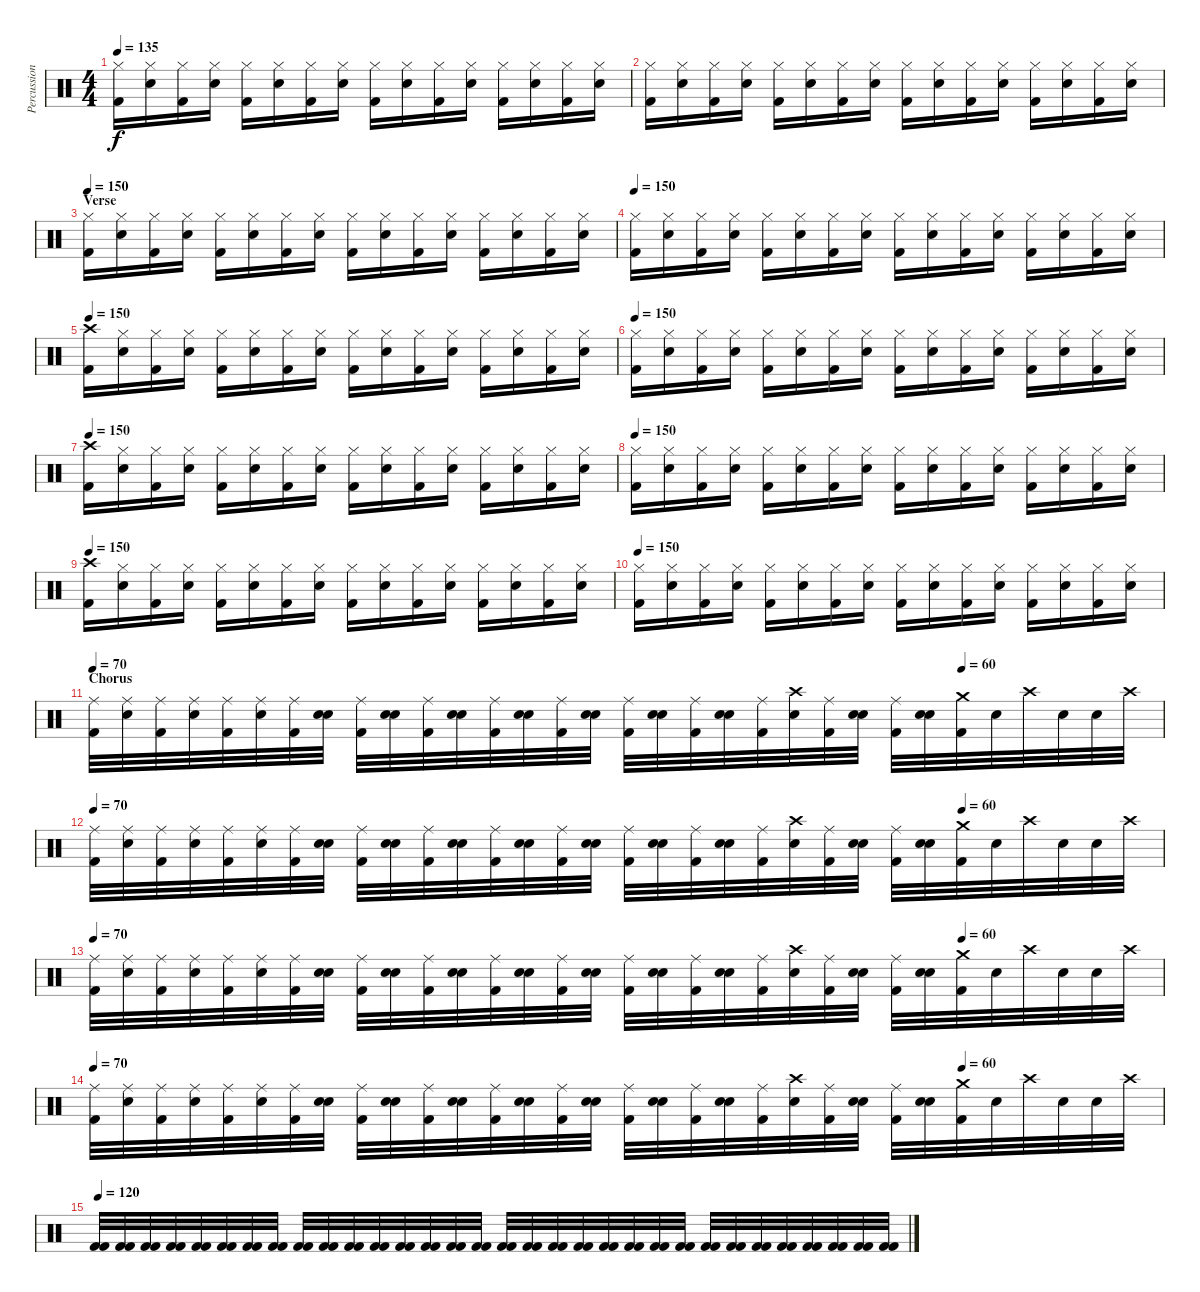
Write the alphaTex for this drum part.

\track ("Percussion" "Percussion") {instrument percussion}
\staff {score}
\articulation defaults
\ts (4 4)
\tempo 135
\clef neutral
\ks c
("Hi-Hat (closed)" "Kick (hit) 2").16{dy f} ("Hi-Hat (closed)" "Electric Snare (hit)").16 ("Hi-Hat (closed)" "Kick (hit) 2").16 ("Hi-Hat (closed)" "Electric Snare (hit)").16 ("Hi-Hat (closed)" "Kick (hit) 2").16 ("Hi-Hat (closed)" "Electric Snare (hit)").16 ("Hi-Hat (closed)" "Kick (hit) 2").16 ("Hi-Hat (closed)" "Electric Snare (hit)").16 ("Hi-Hat (closed)" "Kick (hit) 2").16 ("Hi-Hat (closed)" "Electric Snare (hit)").16 ("Hi-Hat (closed)" "Kick (hit) 2").16 ("Hi-Hat (closed)" "Electric Snare (hit)").16 ("Hi-Hat (closed)" "Kick (hit) 2").16 ("Hi-Hat (closed)" "Electric Snare (hit)").16 ("Hi-Hat (closed)" "Kick (hit) 2").16 ("Hi-Hat (closed)" "Electric Snare (hit)").16 |
("Hi-Hat (closed)" "Kick (hit) 2").16 ("Hi-Hat (closed)" "Electric Snare (hit)").16 ("Hi-Hat (closed)" "Kick (hit) 2").16 ("Hi-Hat (closed)" "Electric Snare (hit)").16 ("Hi-Hat (closed)" "Kick (hit) 2").16 ("Hi-Hat (closed)" "Electric Snare (hit)").16 ("Hi-Hat (closed)" "Kick (hit) 2").16 ("Hi-Hat (closed)" "Electric Snare (hit)").16 ("Hi-Hat (closed)" "Kick (hit) 2").16 ("Hi-Hat (closed)" "Electric Snare (hit)").16 ("Hi-Hat (closed)" "Kick (hit) 2").16 ("Hi-Hat (closed)" "Electric Snare (hit)").16 ("Hi-Hat (closed)" "Kick (hit) 2").16 ("Hi-Hat (closed)" "Electric Snare (hit)").16 ("Hi-Hat (closed)" "Kick (hit) 2").16 ("Hi-Hat (closed)" "Electric Snare (hit)").16 |
\section ("" "Verse")
\tempo 150
("Hi-Hat (closed)" "Kick (hit) 2").16 ("Hi-Hat (closed)" "Electric Snare (hit)").16 ("Hi-Hat (closed)" "Kick (hit) 2").16 ("Hi-Hat (closed)" "Electric Snare (hit)").16 ("Hi-Hat (closed)" "Kick (hit) 2").16 ("Hi-Hat (closed)" "Electric Snare (hit)").16 ("Hi-Hat (closed)" "Kick (hit) 2").16 ("Hi-Hat (closed)" "Electric Snare (hit)").16 ("Hi-Hat (closed)" "Kick (hit) 2").16 ("Hi-Hat (closed)" "Electric Snare (hit)").16 ("Hi-Hat (closed)" "Kick (hit) 2").16 ("Hi-Hat (closed)" "Electric Snare (hit)").16 ("Hi-Hat (closed)" "Kick (hit) 2").16 ("Hi-Hat (closed)" "Electric Snare (hit)").16 ("Hi-Hat (closed)" "Kick (hit) 2").16 ("Hi-Hat (closed)" "Electric Snare (hit)").16 |
\tempo 150
("Hi-Hat (closed)" "Kick (hit) 2").16 ("Hi-Hat (closed)" "Electric Snare (hit)").16 ("Hi-Hat (closed)" "Kick (hit) 2").16 ("Hi-Hat (closed)" "Electric Snare (hit)").16 ("Hi-Hat (closed)" "Kick (hit) 2").16 ("Hi-Hat (closed)" "Electric Snare (hit)").16 ("Hi-Hat (closed)" "Kick (hit) 2").16 ("Hi-Hat (closed)" "Electric Snare (hit)").16 ("Hi-Hat (closed)" "Kick (hit) 2").16 ("Hi-Hat (closed)" "Electric Snare (hit)").16 ("Hi-Hat (closed)" "Kick (hit) 2").16 ("Hi-Hat (closed)" "Electric Snare (hit)").16 ("Hi-Hat (closed)" "Kick (hit) 2").16 ("Hi-Hat (closed)" "Electric Snare (hit)").16 ("Hi-Hat (closed)" "Kick (hit) 2").16 ("Hi-Hat (closed)" "Electric Snare (hit)").16 |
\tempo 150
("Crash high (hit)" "Kick (hit) 2").16 ("Hi-Hat (closed)" "Electric Snare (hit)").16 ("Hi-Hat (closed)" "Kick (hit) 2").16 ("Hi-Hat (closed)" "Electric Snare (hit)").16 ("Hi-Hat (closed)" "Kick (hit) 2").16 ("Hi-Hat (closed)" "Electric Snare (hit)").16 ("Hi-Hat (closed)" "Kick (hit) 2").16 ("Hi-Hat (closed)" "Electric Snare (hit)").16 ("Hi-Hat (closed)" "Kick (hit) 2").16 ("Hi-Hat (closed)" "Electric Snare (hit)").16 ("Hi-Hat (closed)" "Kick (hit) 2").16 ("Hi-Hat (closed)" "Electric Snare (hit)").16 ("Hi-Hat (closed)" "Kick (hit) 2").16 ("Hi-Hat (closed)" "Electric Snare (hit)").16 ("Hi-Hat (closed)" "Kick (hit) 2").16 ("Hi-Hat (closed)" "Electric Snare (hit)").16 |
\tempo 150
("Hi-Hat (closed)" "Kick (hit) 2").16 ("Hi-Hat (closed)" "Electric Snare (hit)").16 ("Hi-Hat (closed)" "Kick (hit) 2").16 ("Hi-Hat (closed)" "Electric Snare (hit)").16 ("Hi-Hat (closed)" "Kick (hit) 2").16 ("Hi-Hat (closed)" "Electric Snare (hit)").16 ("Hi-Hat (closed)" "Kick (hit) 2").16 ("Hi-Hat (closed)" "Electric Snare (hit)").16 ("Hi-Hat (closed)" "Kick (hit) 2").16 ("Hi-Hat (closed)" "Electric Snare (hit)").16 ("Hi-Hat (closed)" "Kick (hit) 2").16 ("Hi-Hat (closed)" "Electric Snare (hit)").16 ("Hi-Hat (closed)" "Kick (hit) 2").16 ("Hi-Hat (closed)" "Electric Snare (hit)").16 ("Hi-Hat (closed)" "Kick (hit) 2").16 ("Hi-Hat (closed)" "Electric Snare (hit)").16 |
\tempo 150
("Crash high (hit)" "Kick (hit) 2").16 ("Hi-Hat (closed)" "Electric Snare (hit)").16 ("Hi-Hat (closed)" "Kick (hit) 2").16 ("Hi-Hat (closed)" "Electric Snare (hit)").16 ("Hi-Hat (closed)" "Kick (hit) 2").16 ("Hi-Hat (closed)" "Electric Snare (hit)").16 ("Hi-Hat (closed)" "Kick (hit) 2").16 ("Hi-Hat (closed)" "Electric Snare (hit)").16 ("Hi-Hat (closed)" "Kick (hit) 2").16 ("Hi-Hat (closed)" "Electric Snare (hit)").16 ("Hi-Hat (closed)" "Kick (hit) 2").16 ("Hi-Hat (closed)" "Electric Snare (hit)").16 ("Hi-Hat (closed)" "Kick (hit) 2").16 ("Hi-Hat (closed)" "Electric Snare (hit)").16 ("Hi-Hat (closed)" "Kick (hit) 2").16 ("Hi-Hat (closed)" "Electric Snare (hit)").16 |
\tempo 150
("Hi-Hat (closed)" "Kick (hit) 2").16 ("Hi-Hat (closed)" "Electric Snare (hit)").16 ("Hi-Hat (closed)" "Kick (hit) 2").16 ("Hi-Hat (closed)" "Electric Snare (hit)").16 ("Hi-Hat (closed)" "Kick (hit) 2").16 ("Hi-Hat (closed)" "Electric Snare (hit)").16 ("Hi-Hat (closed)" "Kick (hit) 2").16 ("Hi-Hat (closed)" "Electric Snare (hit)").16 ("Hi-Hat (closed)" "Kick (hit) 2").16 ("Hi-Hat (closed)" "Electric Snare (hit)").16 ("Hi-Hat (closed)" "Kick (hit) 2").16 ("Hi-Hat (closed)" "Electric Snare (hit)").16 ("Hi-Hat (closed)" "Kick (hit) 2").16 ("Hi-Hat (closed)" "Electric Snare (hit)").16 ("Hi-Hat (closed)" "Kick (hit) 2").16 ("Hi-Hat (closed)" "Electric Snare (hit)").16 |
\tempo 150
("Crash high (hit)" "Kick (hit) 2").16 ("Hi-Hat (closed)" "Electric Snare (hit)").16 ("Hi-Hat (closed)" "Kick (hit) 2").16 ("Hi-Hat (closed)" "Electric Snare (hit)").16 ("Hi-Hat (closed)" "Kick (hit) 2").16 ("Hi-Hat (closed)" "Electric Snare (hit)").16 ("Hi-Hat (closed)" "Kick (hit) 2").16 ("Hi-Hat (closed)" "Electric Snare (hit)").16 ("Hi-Hat (closed)" "Kick (hit) 2").16 ("Hi-Hat (closed)" "Electric Snare (hit)").16 ("Hi-Hat (closed)" "Kick (hit) 2").16 ("Hi-Hat (closed)" "Electric Snare (hit)").16 ("Hi-Hat (closed)" "Kick (hit) 2").16 ("Hi-Hat (closed)" "Electric Snare (hit)").16 ("Hi-Hat (closed)" "Kick (hit) 2").16 ("Hi-Hat (closed)" "Electric Snare (hit)").16 |
\tempo 150
("Hi-Hat (closed)" "Kick (hit) 2").16 ("Hi-Hat (closed)" "Electric Snare (hit)").16 ("Hi-Hat (closed)" "Kick (hit) 2").16 ("Hi-Hat (closed)" "Electric Snare (hit)").16 ("Hi-Hat (closed)" "Kick (hit) 2").16 ("Hi-Hat (closed)" "Electric Snare (hit)").16 ("Hi-Hat (closed)" "Kick (hit) 2").16 ("Hi-Hat (closed)" "Electric Snare (hit)").16 ("Hi-Hat (closed)" "Kick (hit) 2").16 ("Hi-Hat (closed)" "Electric Snare (hit)").16 ("Hi-Hat (closed)" "Kick (hit) 2").16 ("Hi-Hat (closed)" "Electric Snare (hit)").16 ("Hi-Hat (closed)" "Kick (hit) 2").16 ("Hi-Hat (closed)" "Electric Snare (hit)").16 ("Hi-Hat (closed)" "Kick (hit) 2").16 ("Hi-Hat (closed)" "Electric Snare (hit)").16 |
\section ("" "Chorus")
\tempo 70
\tempo (60 0.8125)
("Ride (middle)" "Kick (hit) 2").32 ("Ride (middle)"{x} "Electric Snare (hit)").32 ("Ride (middle)" "Kick (hit) 2").32 ("Ride (middle)"{x} "Electric Snare (hit)").32 ("Ride (middle)" "Kick (hit) 2").32 ("Ride (middle)"{x} "Electric Snare (hit)").32 ("Ride (middle)" "Kick (hit) 2").32 ("Snare (hit)"{x} "Electric Snare (hit)").32 ("Ride (middle)" "Kick (hit) 2").32 ("Snare (hit)"{x} "Electric Snare (hit)").32 ("Ride (middle)" "Kick (hit) 2").32 ("Snare (hit)"{x} "Electric Snare (hit)").32 ("Ride (middle)" "Kick (hit) 2").32 ("Snare (hit)"{x} "Electric Snare (hit)").32 ("Ride (middle)" "Kick (hit) 2").32 ("Snare (hit)"{x} "Electric Snare (hit)").32 ("Ride (middle)" "Kick (hit) 2").32 ("Snare (hit)"{x} "Electric Snare (hit)").32 ("Ride (middle)" "Kick (hit) 2").32 ("Snare (hit)"{x} "Electric Snare (hit)").32 ("Ride (middle)" "Kick (hit) 2").32 ("Crash high (hit)"{x} "Electric Snare (hit)").32 ("Ride (middle)" "Kick (hit) 2").32 ("Snare (hit)"{x} "Electric Snare (hit)").32 ("Ride (middle)" "Kick (hit) 2").32 ("Snare (hit)"{x} "Electric Snare (hit)").32 ("Crash medium (hit)" "Kick (hit) 2").32 "Snare (hit)"{x}.32 "Crash high (hit)".32 "Snare (hit)"{x}.32 "Snare (hit)"{x}.32 "Crash high (hit)".32 |
\tempo 70
\tempo (60 0.8125)
("Ride (middle)" "Kick (hit) 2").32 ("Ride (middle)"{x} "Electric Snare (hit)").32 ("Ride (middle)" "Kick (hit) 2").32 ("Ride (middle)"{x} "Electric Snare (hit)").32 ("Ride (middle)" "Kick (hit) 2").32 ("Ride (middle)"{x} "Electric Snare (hit)").32 ("Ride (middle)" "Kick (hit) 2").32 ("Snare (hit)"{x} "Electric Snare (hit)").32 ("Ride (middle)" "Kick (hit) 2").32 ("Snare (hit)"{x} "Electric Snare (hit)").32 ("Ride (middle)" "Kick (hit) 2").32 ("Snare (hit)"{x} "Electric Snare (hit)").32 ("Ride (middle)" "Kick (hit) 2").32 ("Snare (hit)"{x} "Electric Snare (hit)").32 ("Ride (middle)" "Kick (hit) 2").32 ("Snare (hit)"{x} "Electric Snare (hit)").32 ("Ride (middle)" "Kick (hit) 2").32 ("Snare (hit)"{x} "Electric Snare (hit)").32 ("Ride (middle)" "Kick (hit) 2").32 ("Snare (hit)"{x} "Electric Snare (hit)").32 ("Ride (middle)" "Kick (hit) 2").32 ("Crash high (hit)"{x} "Electric Snare (hit)").32 ("Ride (middle)" "Kick (hit) 2").32 ("Snare (hit)"{x} "Electric Snare (hit)").32 ("Ride (middle)" "Kick (hit) 2").32 ("Snare (hit)"{x} "Electric Snare (hit)").32 ("Crash medium (hit)" "Kick (hit) 2").32 "Snare (hit)"{x}.32 "Crash high (hit)".32 "Snare (hit)"{x}.32 "Snare (hit)"{x}.32 "Crash high (hit)".32 |
\tempo 70
\tempo (60 0.8125)
("Ride (middle)" "Kick (hit) 2").32 ("Ride (middle)"{x} "Electric Snare (hit)").32 ("Ride (middle)" "Kick (hit) 2").32 ("Ride (middle)"{x} "Electric Snare (hit)").32 ("Ride (middle)" "Kick (hit) 2").32 ("Ride (middle)"{x} "Electric Snare (hit)").32 ("Ride (middle)" "Kick (hit) 2").32 ("Snare (hit)"{x} "Electric Snare (hit)").32 ("Ride (middle)" "Kick (hit) 2").32 ("Snare (hit)"{x} "Electric Snare (hit)").32 ("Ride (middle)" "Kick (hit) 2").32 ("Snare (hit)"{x} "Electric Snare (hit)").32 ("Ride (middle)" "Kick (hit) 2").32 ("Snare (hit)"{x} "Electric Snare (hit)").32 ("Ride (middle)" "Kick (hit) 2").32 ("Snare (hit)"{x} "Electric Snare (hit)").32 ("Ride (middle)" "Kick (hit) 2").32 ("Snare (hit)"{x} "Electric Snare (hit)").32 ("Ride (middle)" "Kick (hit) 2").32 ("Snare (hit)"{x} "Electric Snare (hit)").32 ("Ride (middle)" "Kick (hit) 2").32 ("Crash high (hit)"{x} "Electric Snare (hit)").32 ("Ride (middle)" "Kick (hit) 2").32 ("Snare (hit)"{x} "Electric Snare (hit)").32 ("Ride (middle)" "Kick (hit) 2").32 ("Snare (hit)"{x} "Electric Snare (hit)").32 ("Crash medium (hit)" "Kick (hit) 2").32 "Snare (hit)"{x}.32 "Crash high (hit)".32 "Snare (hit)"{x}.32 "Snare (hit)"{x}.32 "Crash high (hit)".32 |
\tempo 70
\tempo (60 0.8125)
("Ride (middle)" "Kick (hit) 2").32 ("Ride (middle)"{x} "Electric Snare (hit)").32 ("Ride (middle)" "Kick (hit) 2").32 ("Ride (middle)"{x} "Electric Snare (hit)").32 ("Ride (middle)" "Kick (hit) 2").32 ("Ride (middle)"{x} "Electric Snare (hit)").32 ("Ride (middle)" "Kick (hit) 2").32 ("Snare (hit)"{x} "Electric Snare (hit)").32 ("Ride (middle)" "Kick (hit) 2").32 ("Snare (hit)"{x} "Electric Snare (hit)").32 ("Ride (middle)" "Kick (hit) 2").32 ("Snare (hit)"{x} "Electric Snare (hit)").32 ("Ride (middle)" "Kick (hit) 2").32 ("Snare (hit)"{x} "Electric Snare (hit)").32 ("Ride (middle)" "Kick (hit) 2").32 ("Snare (hit)"{x} "Electric Snare (hit)").32 ("Ride (middle)" "Kick (hit) 2").32 ("Snare (hit)"{x} "Electric Snare (hit)").32 ("Ride (middle)" "Kick (hit) 2").32 ("Snare (hit)"{x} "Electric Snare (hit)").32 ("Ride (middle)" "Kick (hit) 2").32 ("Crash high (hit)"{x} "Electric Snare (hit)").32 ("Ride (middle)" "Kick (hit) 2").32 ("Snare (hit)"{x} "Electric Snare (hit)").32 ("Ride (middle)" "Kick (hit) 2").32 ("Snare (hit)"{x} "Electric Snare (hit)").32 ("Crash medium (hit)" "Kick (hit) 2").32 "Snare (hit)"{x}.32 "Crash high (hit)".32 "Snare (hit)"{x}.32 "Snare (hit)"{x}.32 "Crash high (hit)".32 |
\tempo 120
("Kick (hit) 2" "Kick (hit) 2").32 ("Kick (hit) 2" "Kick (hit) 2").32 ("Kick (hit) 2" "Kick (hit) 2").32 ("Kick (hit) 2" "Kick (hit) 2").32 ("Kick (hit) 2" "Kick (hit) 2").32 ("Kick (hit) 2" "Kick (hit) 2").32 ("Kick (hit) 2" "Kick (hit) 2").32 ("Kick (hit) 2" "Kick (hit) 2").32 ("Kick (hit) 2" "Kick (hit) 2").32 ("Kick (hit) 2" "Kick (hit) 2").32 ("Kick (hit) 2" "Kick (hit) 2").32 ("Kick (hit) 2" "Kick (hit) 2").32 ("Kick (hit) 2" "Kick (hit) 2").32 ("Kick (hit) 2" "Kick (hit) 2").32 ("Kick (hit) 2" "Kick (hit) 2").32 ("Kick (hit) 2" "Kick (hit) 2").32 ("Kick (hit) 2" "Kick (hit) 2").32 ("Kick (hit) 2" "Kick (hit) 2").32 ("Kick (hit) 2" "Kick (hit) 2").32 ("Kick (hit) 2" "Kick (hit) 2").32 ("Kick (hit) 2" "Kick (hit) 2").32 ("Kick (hit) 2" "Kick (hit) 2").32 ("Kick (hit) 2" "Kick (hit) 2").32 ("Kick (hit) 2" "Kick (hit) 2").32 ("Kick (hit) 2" "Kick (hit) 2").32 ("Kick (hit) 2" "Kick (hit) 2").32 ("Kick (hit) 2" "Kick (hit) 2").32 ("Kick (hit) 2" "Kick (hit) 2").32 ("Kick (hit) 2" "Kick (hit) 2").32 ("Kick (hit) 2" "Kick (hit) 2").32 ("Kick (hit) 2" "Kick (hit) 2").32 ("Kick (hit) 2" "Kick (hit) 2").32
